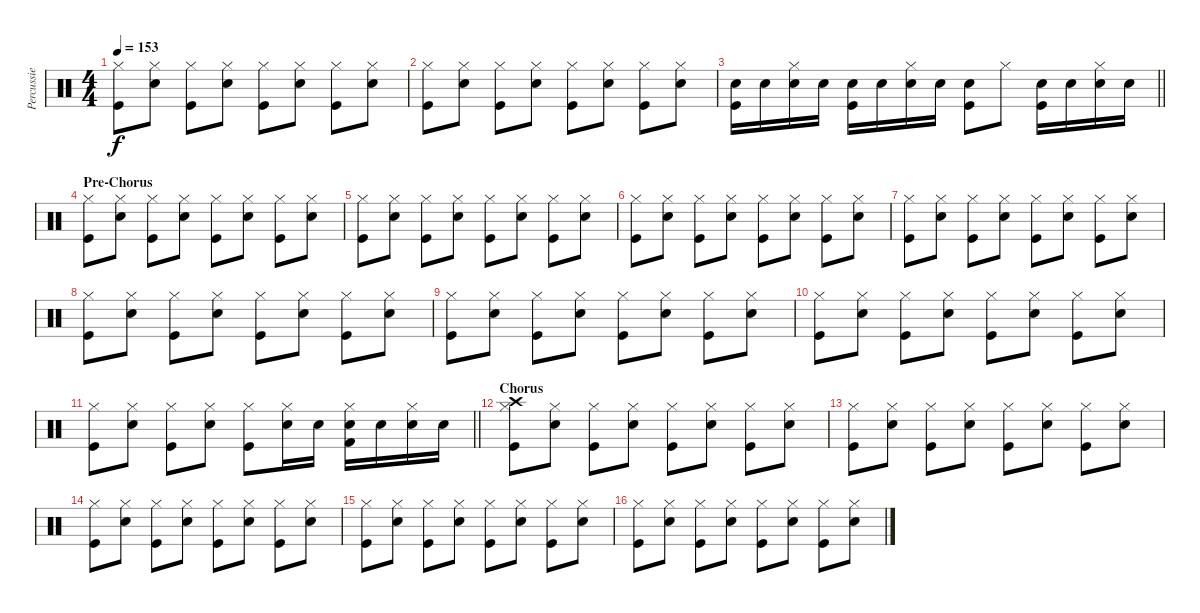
\track ("Percussie George Schwindt" "Percussie ") {instrument percussion}
\staff {score}
\articulation defaults
\ts (4 4)
\tempo 153
\clef neutral
\ks c
("Hi-Hat (closed)" "Kick (hit)").8{dy f} ("Electric Snare (hit)" "Hi-Hat (closed)").8 ("Hi-Hat (closed)" "Kick (hit)").8 ("Electric Snare (hit)" "Hi-Hat (closed)").8 ("Hi-Hat (closed)" "Kick (hit)").8 ("Electric Snare (hit)" "Hi-Hat (closed)").8 ("Hi-Hat (closed)" "Kick (hit)").8 ("Electric Snare (hit)" "Hi-Hat (closed)").8 |
("Hi-Hat (closed)" "Kick (hit)").8 ("Electric Snare (hit)" "Hi-Hat (closed)").8 ("Hi-Hat (closed)" "Kick (hit)").8 ("Electric Snare (hit)" "Hi-Hat (closed)").8 ("Hi-Hat (closed)" "Kick (hit)").8 ("Electric Snare (hit)" "Hi-Hat (closed)").8 ("Hi-Hat (closed)" "Kick (hit)").8 ("Electric Snare (hit)" "Hi-Hat (closed)").8 |
\barLineRight lightlight
("Electric Snare (hit)" "Kick (hit)").16 "Electric Snare (hit)".16 ("Electric Snare (hit)" "Hi-Hat (closed)").16 "Electric Snare (hit)".16 ("Electric Snare (hit)" "Kick (hit)").16 "Electric Snare (hit)".16 ("Electric Snare (hit)" "Hi-Hat (closed)").16 "Electric Snare (hit)".16 ("Electric Snare (hit)" "Kick (hit)").8 "Hi-Hat (closed)".8 ("Electric Snare (hit)" "Kick (hit)").16 "Electric Snare (hit)".16 ("Electric Snare (hit)" "Hi-Hat (closed)").16 "Electric Snare (hit)".16 |
\section ("" "Pre-Chorus")
("Hi-Hat (closed)" "Kick (hit)").8 ("Electric Snare (hit)" "Hi-Hat (closed)").8 ("Hi-Hat (closed)" "Kick (hit)").8 ("Electric Snare (hit)" "Hi-Hat (closed)").8 ("Hi-Hat (closed)" "Kick (hit)").8 ("Electric Snare (hit)" "Hi-Hat (closed)").8 ("Hi-Hat (closed)" "Kick (hit)").8 ("Electric Snare (hit)" "Hi-Hat (closed)").8 |
("Hi-Hat (closed)" "Kick (hit)").8 ("Electric Snare (hit)" "Hi-Hat (closed)").8 ("Hi-Hat (closed)" "Kick (hit)").8 ("Electric Snare (hit)" "Hi-Hat (closed)").8 ("Hi-Hat (closed)" "Kick (hit)").8 ("Electric Snare (hit)" "Hi-Hat (closed)").8 ("Hi-Hat (closed)" "Kick (hit)").8 ("Electric Snare (hit)" "Hi-Hat (closed)").8 |
("Hi-Hat (closed)" "Kick (hit)").8 ("Electric Snare (hit)" "Hi-Hat (closed)").8 ("Hi-Hat (closed)" "Kick (hit)").8 ("Electric Snare (hit)" "Hi-Hat (closed)").8 ("Hi-Hat (closed)" "Kick (hit)").8 ("Electric Snare (hit)" "Hi-Hat (closed)").8 ("Hi-Hat (closed)" "Kick (hit)").8 ("Electric Snare (hit)" "Hi-Hat (closed)").8 |
("Hi-Hat (closed)" "Kick (hit)").8 ("Electric Snare (hit)" "Hi-Hat (closed)").8 ("Hi-Hat (closed)" "Kick (hit)").8 ("Electric Snare (hit)" "Hi-Hat (closed)").8 ("Hi-Hat (closed)" "Kick (hit)").8 ("Electric Snare (hit)" "Hi-Hat (closed)").8 ("Hi-Hat (closed)" "Kick (hit)").8 ("Electric Snare (hit)" "Hi-Hat (closed)").8 |
("Hi-Hat (closed)" "Kick (hit)").8 ("Electric Snare (hit)" "Hi-Hat (closed)").8 ("Hi-Hat (closed)" "Kick (hit)").8 ("Electric Snare (hit)" "Hi-Hat (closed)").8 ("Hi-Hat (closed)" "Kick (hit)").8 ("Electric Snare (hit)" "Hi-Hat (closed)").8 ("Hi-Hat (closed)" "Kick (hit)").8 ("Electric Snare (hit)" "Hi-Hat (closed)").8 |
("Hi-Hat (closed)" "Kick (hit)").8 ("Electric Snare (hit)" "Hi-Hat (closed)").8 ("Hi-Hat (closed)" "Kick (hit)").8 ("Electric Snare (hit)" "Hi-Hat (closed)").8 ("Hi-Hat (closed)" "Kick (hit)").8 ("Electric Snare (hit)" "Hi-Hat (closed)").8 ("Hi-Hat (closed)" "Kick (hit)").8 ("Electric Snare (hit)" "Hi-Hat (closed)").8 |
("Hi-Hat (closed)" "Kick (hit)").8 ("Electric Snare (hit)" "Hi-Hat (closed)").8 ("Hi-Hat (closed)" "Kick (hit)").8 ("Electric Snare (hit)" "Hi-Hat (closed)").8 ("Hi-Hat (closed)" "Kick (hit)").8 ("Electric Snare (hit)" "Hi-Hat (closed)").8 ("Hi-Hat (closed)" "Kick (hit)").8 ("Electric Snare (hit)" "Hi-Hat (closed)").8 |
\barLineRight lightlight
("Hi-Hat (closed)" "Kick (hit)").8 ("Electric Snare (hit)" "Hi-Hat (closed)").8 ("Hi-Hat (closed)" "Kick (hit)").8 ("Electric Snare (hit)" "Hi-Hat (closed)").8 ("Hi-Hat (closed)" "Kick (hit)").8 ("Electric Snare (hit)" "Hi-Hat (closed)").16 "Electric Snare (hit)".16 ("Electric Snare (hit)" "Hi-Hat (closed)" "Kick (hit) 2").16 "Electric Snare (hit)".16 ("Electric Snare (hit)" "Hi-Hat (closed)").16 "Electric Snare (hit)".16 |
\section ("" "Chorus")
("Crash high (hit)" "Hi-Hat (closed)" "Kick (hit)").8 ("Electric Snare (hit)" "Hi-Hat (closed)").8 ("Hi-Hat (closed)" "Kick (hit)").8 ("Electric Snare (hit)" "Hi-Hat (closed)").8 ("Hi-Hat (closed)" "Kick (hit)").8 ("Electric Snare (hit)" "Hi-Hat (closed)").8 ("Hi-Hat (closed)" "Kick (hit)").8 ("Electric Snare (hit)" "Hi-Hat (closed)").8 |
("Hi-Hat (closed)" "Kick (hit)").8 ("Electric Snare (hit)" "Hi-Hat (closed)").8 ("Hi-Hat (closed)" "Kick (hit)").8 ("Electric Snare (hit)" "Hi-Hat (closed)").8 ("Hi-Hat (closed)" "Kick (hit)").8 ("Electric Snare (hit)" "Hi-Hat (closed)").8 ("Hi-Hat (closed)" "Kick (hit)").8 ("Electric Snare (hit)" "Hi-Hat (closed)").8 |
("Hi-Hat (closed)" "Kick (hit)").8 ("Electric Snare (hit)" "Hi-Hat (closed)").8 ("Hi-Hat (closed)" "Kick (hit)").8 ("Electric Snare (hit)" "Hi-Hat (closed)").8 ("Hi-Hat (closed)" "Kick (hit)").8 ("Electric Snare (hit)" "Hi-Hat (closed)").8 ("Hi-Hat (closed)" "Kick (hit)").8 ("Electric Snare (hit)" "Hi-Hat (closed)").8 |
("Hi-Hat (closed)" "Kick (hit)").8 ("Electric Snare (hit)" "Hi-Hat (closed)").8 ("Hi-Hat (closed)" "Kick (hit)").8 ("Electric Snare (hit)" "Hi-Hat (closed)").8 ("Hi-Hat (closed)" "Kick (hit)").8 ("Electric Snare (hit)" "Hi-Hat (closed)").8 ("Hi-Hat (closed)" "Kick (hit)").8 ("Electric Snare (hit)" "Hi-Hat (closed)").8 |
("Hi-Hat (closed)" "Kick (hit)").8 ("Electric Snare (hit)" "Hi-Hat (closed)").8 ("Hi-Hat (closed)" "Kick (hit)").8 ("Electric Snare (hit)" "Hi-Hat (closed)").8 ("Hi-Hat (closed)" "Kick (hit)").8 ("Electric Snare (hit)" "Hi-Hat (closed)").8 ("Hi-Hat (closed)" "Kick (hit)").8 ("Electric Snare (hit)" "Hi-Hat (closed)").8
